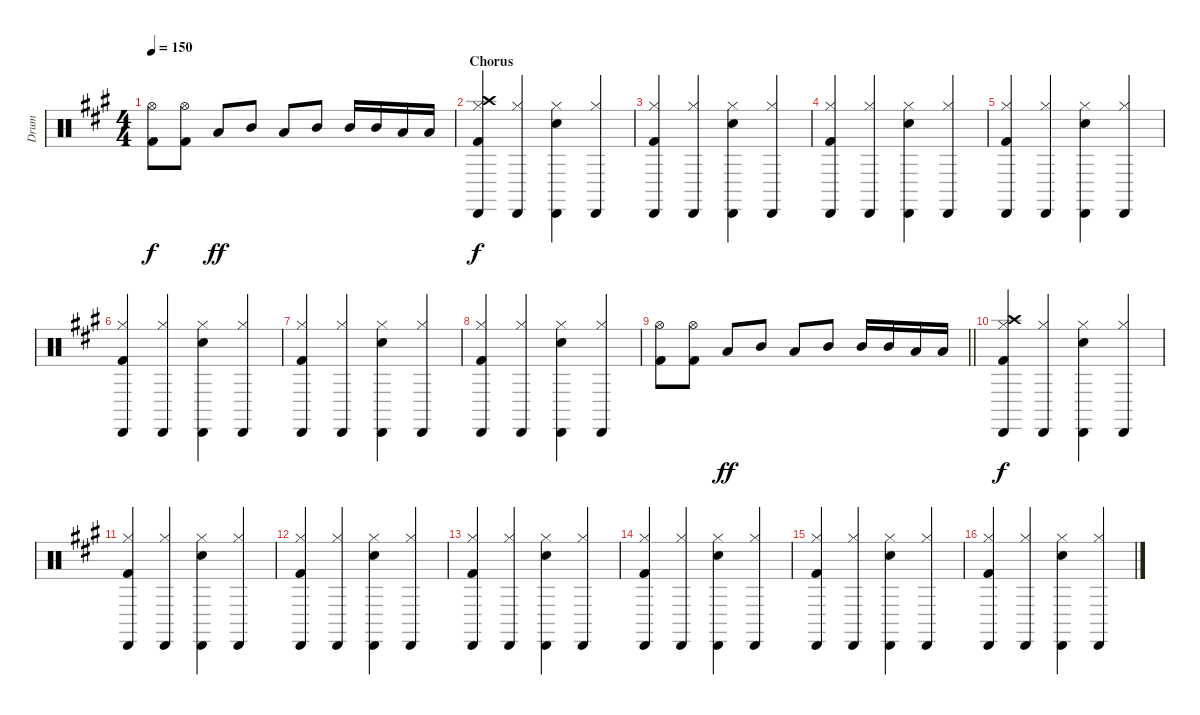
\track ("Drum " "Drum ") {instrument percussion}
\staff {score}
\articulation defaults
\ts (4 4)
\tempo 150
\clef neutral
\ks a
("Hi-Hat (open)" "Kick (hit) 2").8{dy f} ("Hi-Hat (open)" "Kick (hit) 2").8 "Low Tom (hit)".8{dy ff} "Mid Tom (hit)".8 "Low Tom (hit)".8 "Mid Tom (hit)".8 "Mid Tom (hit)".16 "Mid Tom (hit)".16 "Low Tom (hit)".16 "Low Tom (hit)".16 |
\section ("" "Chorus")
("Hi-Hat (closed)" "Crash high (hit)" "Cabasa (hit)" "Kick (hit) 2").4{dy f} ("Hi-Hat (closed)" "Cabasa (hit)").4 ("Hi-Hat (closed)" "Snare (hit) 2" "Cabasa (hit)").4 ("Hi-Hat (closed)" "Cabasa (hit)").4 |
("Hi-Hat (closed)" "Cabasa (hit)" "Kick (hit) 2").4 ("Hi-Hat (closed)" "Cabasa (hit)").4 ("Hi-Hat (closed)" "Snare (hit) 2" "Cabasa (hit)").4 ("Hi-Hat (closed)" "Cabasa (hit)").4 |
("Hi-Hat (closed)" "Cabasa (hit)" "Kick (hit) 2").4 ("Hi-Hat (closed)" "Cabasa (hit)").4 ("Hi-Hat (closed)" "Snare (hit) 2" "Cabasa (hit)").4 ("Hi-Hat (closed)" "Cabasa (hit)").4 |
("Hi-Hat (closed)" "Cabasa (hit)" "Kick (hit) 2").4 ("Hi-Hat (closed)" "Cabasa (hit)").4 ("Hi-Hat (closed)" "Snare (hit) 2" "Cabasa (hit)").4 ("Hi-Hat (closed)" "Cabasa (hit)").4 |
("Hi-Hat (closed)" "Cabasa (hit)" "Kick (hit) 2").4 ("Hi-Hat (closed)" "Cabasa (hit)").4 ("Hi-Hat (closed)" "Snare (hit) 2" "Cabasa (hit)").4 ("Hi-Hat (closed)" "Cabasa (hit)").4 |
("Hi-Hat (closed)" "Cabasa (hit)" "Kick (hit) 2").4 ("Hi-Hat (closed)" "Cabasa (hit)").4 ("Hi-Hat (closed)" "Snare (hit) 2" "Cabasa (hit)").4 ("Hi-Hat (closed)" "Cabasa (hit)").4 |
("Hi-Hat (closed)" "Cabasa (hit)" "Kick (hit) 2").4 ("Hi-Hat (closed)" "Cabasa (hit)").4 ("Hi-Hat (closed)" "Snare (hit) 2" "Cabasa (hit)").4 ("Hi-Hat (closed)" "Cabasa (hit)").4 |
\barLineRight lightlight
("Hi-Hat (open)" "Kick (hit) 2").8 ("Hi-Hat (open)" "Kick (hit) 2").8 "Low Tom (hit)".8{dy ff} "Mid Tom (hit)".8 "Low Tom (hit)".8 "Mid Tom (hit)".8 "Mid Tom (hit)".16 "Mid Tom (hit)".16 "Low Tom (hit)".16 "Low Tom (hit)".16 |
\section ("" "")
("Hi-Hat (closed)" "Crash high (hit)" "Cabasa (hit)" "Kick (hit) 2").4{dy f} ("Hi-Hat (closed)" "Cabasa (hit)").4 ("Hi-Hat (closed)" "Snare (hit) 2" "Cabasa (hit)").4 ("Hi-Hat (closed)" "Cabasa (hit)").4 |
("Hi-Hat (closed)" "Cabasa (hit)" "Kick (hit) 2").4 ("Hi-Hat (closed)" "Cabasa (hit)").4 ("Hi-Hat (closed)" "Snare (hit) 2" "Cabasa (hit)").4 ("Hi-Hat (closed)" "Cabasa (hit)").4 |
("Hi-Hat (closed)" "Cabasa (hit)" "Kick (hit) 2").4 ("Hi-Hat (closed)" "Cabasa (hit)").4 ("Hi-Hat (closed)" "Snare (hit) 2" "Cabasa (hit)").4 ("Hi-Hat (closed)" "Cabasa (hit)").4 |
("Hi-Hat (closed)" "Cabasa (hit)" "Kick (hit) 2").4 ("Hi-Hat (closed)" "Cabasa (hit)").4 ("Hi-Hat (closed)" "Snare (hit) 2" "Cabasa (hit)").4 ("Hi-Hat (closed)" "Cabasa (hit)").4 |
("Hi-Hat (closed)" "Cabasa (hit)" "Kick (hit) 2").4 ("Hi-Hat (closed)" "Cabasa (hit)").4 ("Hi-Hat (closed)" "Snare (hit) 2" "Cabasa (hit)").4 ("Hi-Hat (closed)" "Cabasa (hit)").4 |
("Hi-Hat (closed)" "Cabasa (hit)" "Kick (hit) 2").4 ("Hi-Hat (closed)" "Cabasa (hit)").4 ("Hi-Hat (closed)" "Snare (hit) 2" "Cabasa (hit)").4 ("Hi-Hat (closed)" "Cabasa (hit)").4 |
("Hi-Hat (closed)" "Cabasa (hit)" "Kick (hit) 2").4 ("Hi-Hat (closed)" "Cabasa (hit)").4 ("Hi-Hat (closed)" "Snare (hit) 2" "Cabasa (hit)").4 ("Hi-Hat (closed)" "Cabasa (hit)").4
